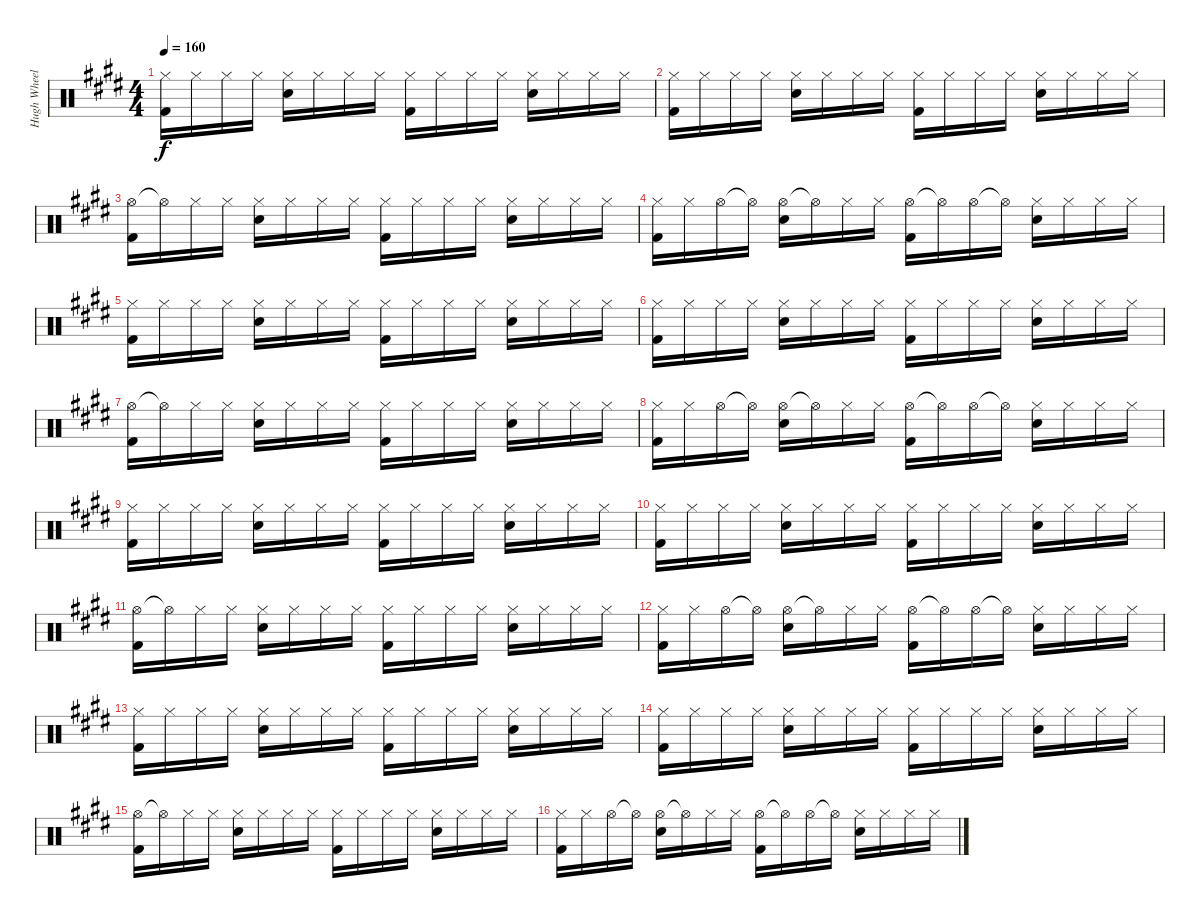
\track ("Hugh Wheeler - Drums" "Hugh Wheel") {instrument percussion}
\staff {score}
\articulation defaults
\ts (4 4)
\tempo 160
\clef neutral
\ks e
("Hi-Hat (closed)" "Kick (hit) 2").16{dy f} "Hi-Hat (closed)".16 "Hi-Hat (closed)".16 "Hi-Hat (closed)".16 ("Hi-Hat (closed)" "Electric Snare (hit)").16 "Hi-Hat (closed)".16 "Hi-Hat (closed)".16 "Hi-Hat (closed)".16 ("Hi-Hat (closed)" "Kick (hit) 2").16 "Hi-Hat (closed)".16 "Hi-Hat (closed)".16 "Hi-Hat (closed)".16 ("Hi-Hat (closed)" "Electric Snare (hit)").16 "Hi-Hat (closed)".16 "Hi-Hat (closed)".16 "Hi-Hat (closed)".16 |
("Hi-Hat (closed)" "Kick (hit) 2").16 "Hi-Hat (closed)".16 "Hi-Hat (closed)".16 "Hi-Hat (closed)".16 ("Hi-Hat (closed)" "Electric Snare (hit)").16 "Hi-Hat (closed)".16 "Hi-Hat (closed)".16 "Hi-Hat (closed)".16 ("Hi-Hat (closed)" "Kick (hit) 2").16 "Hi-Hat (closed)".16 "Hi-Hat (closed)".16 "Hi-Hat (closed)".16 ("Hi-Hat (closed)" "Electric Snare (hit)").16 "Hi-Hat (closed)".16 "Hi-Hat (closed)".16 "Hi-Hat (closed)".16 |
("Hi-Hat (open)" "Kick (hit) 2").16 "Hi-Hat (open)"{t}.16 "Hi-Hat (closed)".16 "Hi-Hat (closed)".16 ("Hi-Hat (closed)" "Electric Snare (hit)").16 "Hi-Hat (closed)".16 "Hi-Hat (closed)".16 "Hi-Hat (closed)".16 ("Hi-Hat (closed)" "Kick (hit) 2").16 "Hi-Hat (closed)".16 "Hi-Hat (closed)".16 "Hi-Hat (closed)".16 ("Hi-Hat (closed)" "Electric Snare (hit)").16 "Hi-Hat (closed)".16 "Hi-Hat (closed)".16 "Hi-Hat (closed)".16 |
("Hi-Hat (closed)" "Kick (hit) 2").16 "Hi-Hat (closed)".16 "Hi-Hat (open)".16 "Hi-Hat (open)"{t}.16 ("Hi-Hat (open)" "Electric Snare (hit)").16 "Hi-Hat (open)"{t}.16 "Hi-Hat (closed)".16 "Hi-Hat (closed)".16 ("Hi-Hat (open)" "Kick (hit) 2").16 "Hi-Hat (open)"{t}.16 "Hi-Hat (open)".16 "Hi-Hat (open)"{t}.16 ("Hi-Hat (closed)" "Electric Snare (hit)").16 "Hi-Hat (closed)".16 "Hi-Hat (closed)".16 "Hi-Hat (closed)".16 |
("Hi-Hat (closed)" "Kick (hit) 2").16 "Hi-Hat (closed)".16 "Hi-Hat (closed)".16 "Hi-Hat (closed)".16 ("Hi-Hat (closed)" "Electric Snare (hit)").16 "Hi-Hat (closed)".16 "Hi-Hat (closed)".16 "Hi-Hat (closed)".16 ("Hi-Hat (closed)" "Kick (hit) 2").16 "Hi-Hat (closed)".16 "Hi-Hat (closed)".16 "Hi-Hat (closed)".16 ("Hi-Hat (closed)" "Electric Snare (hit)").16 "Hi-Hat (closed)".16 "Hi-Hat (closed)".16 "Hi-Hat (closed)".16 |
("Hi-Hat (closed)" "Kick (hit) 2").16 "Hi-Hat (closed)".16 "Hi-Hat (closed)".16 "Hi-Hat (closed)".16 ("Hi-Hat (closed)" "Electric Snare (hit)").16 "Hi-Hat (closed)".16 "Hi-Hat (closed)".16 "Hi-Hat (closed)".16 ("Hi-Hat (closed)" "Kick (hit) 2").16 "Hi-Hat (closed)".16 "Hi-Hat (closed)".16 "Hi-Hat (closed)".16 ("Hi-Hat (closed)" "Electric Snare (hit)").16 "Hi-Hat (closed)".16 "Hi-Hat (closed)".16 "Hi-Hat (closed)".16 |
("Hi-Hat (open)" "Kick (hit) 2").16 "Hi-Hat (open)"{t}.16 "Hi-Hat (closed)".16 "Hi-Hat (closed)".16 ("Hi-Hat (closed)" "Electric Snare (hit)").16 "Hi-Hat (closed)".16 "Hi-Hat (closed)".16 "Hi-Hat (closed)".16 ("Hi-Hat (closed)" "Kick (hit) 2").16 "Hi-Hat (closed)".16 "Hi-Hat (closed)".16 "Hi-Hat (closed)".16 ("Hi-Hat (closed)" "Electric Snare (hit)").16 "Hi-Hat (closed)".16 "Hi-Hat (closed)".16 "Hi-Hat (closed)".16 |
("Hi-Hat (closed)" "Kick (hit) 2").16 "Hi-Hat (closed)".16 "Hi-Hat (open)".16 "Hi-Hat (open)"{t}.16 ("Hi-Hat (open)" "Electric Snare (hit)").16 "Hi-Hat (open)"{t}.16 "Hi-Hat (closed)".16 "Hi-Hat (closed)".16 ("Hi-Hat (open)" "Kick (hit) 2").16 "Hi-Hat (open)"{t}.16 "Hi-Hat (open)".16 "Hi-Hat (open)"{t}.16 ("Hi-Hat (closed)" "Electric Snare (hit)").16 "Hi-Hat (closed)".16 "Hi-Hat (closed)".16 "Hi-Hat (closed)".16 |
("Hi-Hat (closed)" "Kick (hit) 2").16 "Hi-Hat (closed)".16 "Hi-Hat (closed)".16 "Hi-Hat (closed)".16 ("Hi-Hat (closed)" "Electric Snare (hit)").16 "Hi-Hat (closed)".16 "Hi-Hat (closed)".16 "Hi-Hat (closed)".16 ("Hi-Hat (closed)" "Kick (hit) 2").16 "Hi-Hat (closed)".16 "Hi-Hat (closed)".16 "Hi-Hat (closed)".16 ("Hi-Hat (closed)" "Electric Snare (hit)").16 "Hi-Hat (closed)".16 "Hi-Hat (closed)".16 "Hi-Hat (closed)".16 |
("Hi-Hat (closed)" "Kick (hit) 2").16 "Hi-Hat (closed)".16 "Hi-Hat (closed)".16 "Hi-Hat (closed)".16 ("Hi-Hat (closed)" "Electric Snare (hit)").16 "Hi-Hat (closed)".16 "Hi-Hat (closed)".16 "Hi-Hat (closed)".16 ("Hi-Hat (closed)" "Kick (hit) 2").16 "Hi-Hat (closed)".16 "Hi-Hat (closed)".16 "Hi-Hat (closed)".16 ("Hi-Hat (closed)" "Electric Snare (hit)").16 "Hi-Hat (closed)".16 "Hi-Hat (closed)".16 "Hi-Hat (closed)".16 |
("Hi-Hat (open)" "Kick (hit) 2").16 "Hi-Hat (open)"{t}.16 "Hi-Hat (closed)".16 "Hi-Hat (closed)".16 ("Hi-Hat (closed)" "Electric Snare (hit)").16 "Hi-Hat (closed)".16 "Hi-Hat (closed)".16 "Hi-Hat (closed)".16 ("Hi-Hat (closed)" "Kick (hit) 2").16 "Hi-Hat (closed)".16 "Hi-Hat (closed)".16 "Hi-Hat (closed)".16 ("Hi-Hat (closed)" "Electric Snare (hit)").16 "Hi-Hat (closed)".16 "Hi-Hat (closed)".16 "Hi-Hat (closed)".16 |
("Hi-Hat (closed)" "Kick (hit) 2").16 "Hi-Hat (closed)".16 "Hi-Hat (open)".16 "Hi-Hat (open)"{t}.16 ("Hi-Hat (open)" "Electric Snare (hit)").16 "Hi-Hat (open)"{t}.16 "Hi-Hat (closed)".16 "Hi-Hat (closed)".16 ("Hi-Hat (open)" "Kick (hit) 2").16 "Hi-Hat (open)"{t}.16 "Hi-Hat (open)".16 "Hi-Hat (open)"{t}.16 ("Hi-Hat (closed)" "Electric Snare (hit)").16 "Hi-Hat (closed)".16 "Hi-Hat (closed)".16 "Hi-Hat (closed)".16 |
("Hi-Hat (closed)" "Kick (hit) 2").16 "Hi-Hat (closed)".16 "Hi-Hat (closed)".16 "Hi-Hat (closed)".16 ("Hi-Hat (closed)" "Electric Snare (hit)").16 "Hi-Hat (closed)".16 "Hi-Hat (closed)".16 "Hi-Hat (closed)".16 ("Hi-Hat (closed)" "Kick (hit) 2").16 "Hi-Hat (closed)".16 "Hi-Hat (closed)".16 "Hi-Hat (closed)".16 ("Hi-Hat (closed)" "Electric Snare (hit)").16 "Hi-Hat (closed)".16 "Hi-Hat (closed)".16 "Hi-Hat (closed)".16 |
("Hi-Hat (closed)" "Kick (hit) 2").16 "Hi-Hat (closed)".16 "Hi-Hat (closed)".16 "Hi-Hat (closed)".16 ("Hi-Hat (closed)" "Electric Snare (hit)").16 "Hi-Hat (closed)".16 "Hi-Hat (closed)".16 "Hi-Hat (closed)".16 ("Hi-Hat (closed)" "Kick (hit) 2").16 "Hi-Hat (closed)".16 "Hi-Hat (closed)".16 "Hi-Hat (closed)".16 ("Hi-Hat (closed)" "Electric Snare (hit)").16 "Hi-Hat (closed)".16 "Hi-Hat (closed)".16 "Hi-Hat (closed)".16 |
("Hi-Hat (open)" "Kick (hit) 2").16 "Hi-Hat (open)"{t}.16 "Hi-Hat (closed)".16 "Hi-Hat (closed)".16 ("Hi-Hat (closed)" "Electric Snare (hit)").16 "Hi-Hat (closed)".16 "Hi-Hat (closed)".16 "Hi-Hat (closed)".16 ("Hi-Hat (closed)" "Kick (hit) 2").16 "Hi-Hat (closed)".16 "Hi-Hat (closed)".16 "Hi-Hat (closed)".16 ("Hi-Hat (closed)" "Electric Snare (hit)").16 "Hi-Hat (closed)".16 "Hi-Hat (closed)".16 "Hi-Hat (closed)".16 |
("Hi-Hat (closed)" "Kick (hit) 2").16 "Hi-Hat (closed)".16 "Hi-Hat (open)".16 "Hi-Hat (open)"{t}.16 ("Hi-Hat (open)" "Electric Snare (hit)").16 "Hi-Hat (open)"{t}.16 "Hi-Hat (closed)".16 "Hi-Hat (closed)".16 ("Hi-Hat (open)" "Kick (hit) 2").16 "Hi-Hat (open)"{t}.16 "Hi-Hat (open)".16 "Hi-Hat (open)"{t}.16 ("Hi-Hat (closed)" "Electric Snare (hit)").16 "Hi-Hat (closed)".16 "Hi-Hat (closed)".16 "Hi-Hat (closed)".16
